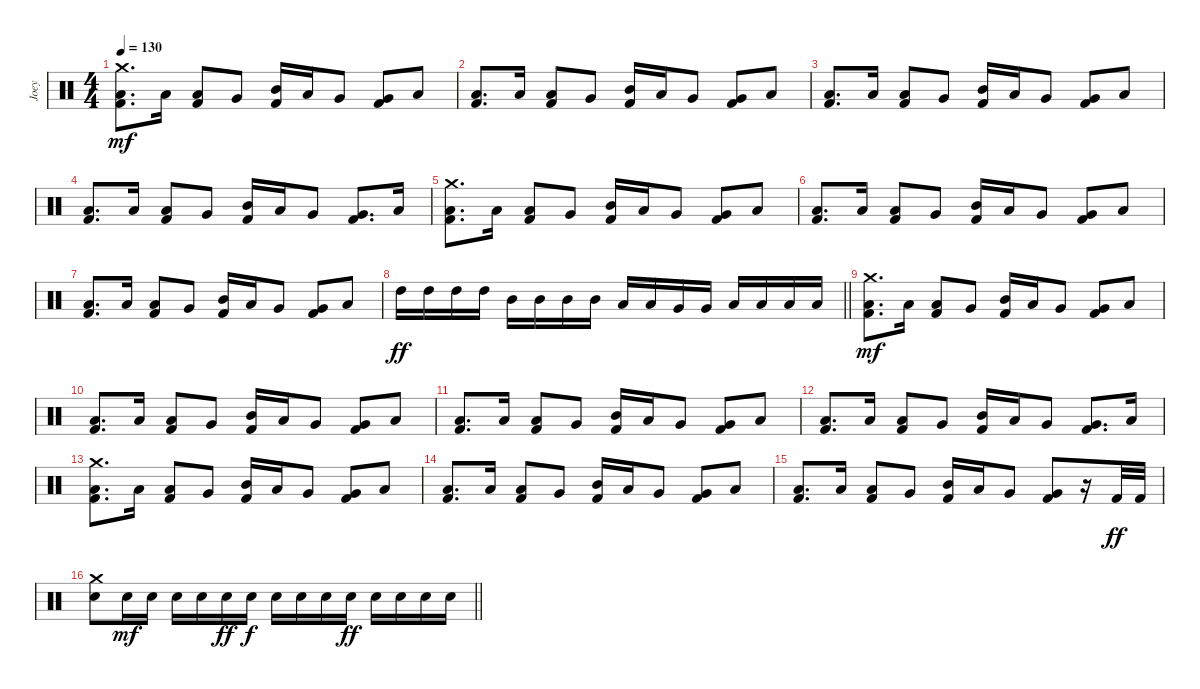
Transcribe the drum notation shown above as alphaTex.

\track ("Joey" "Joey") {instrument percussion}
\staff {score}
\articulation defaults
\ts (4 4)
\section ("" "")
\tempo 130
\clef neutral
\ks c
("Crash medium (hit)" "Low Tom (hit)" "Kick (hit) 2").8{d dy mf} "Low Tom (hit)".16 ("Low Tom (hit)" "Kick (hit) 2").8 "Very Low Tom (hit)".8 ("Mid Tom (hit)" "Kick (hit) 2").16 "Low Tom (hit)".16 "Very Low Tom (hit)".8 ("Very Low Tom (hit)" "Kick (hit) 2").8 "Low Floor Tom (hit)".8 |
("Low Tom (hit)" "Kick (hit) 2").8{d} "Low Tom (hit)".16 ("Low Tom (hit)" "Kick (hit) 2").8 "Very Low Tom (hit)".8 ("Mid Tom (hit)" "Kick (hit) 2").16 "Low Tom (hit)".16 "Very Low Tom (hit)".8 ("Very Low Tom (hit)" "Kick (hit) 2").8 "Low Floor Tom (hit)".8 |
("Low Tom (hit)" "Kick (hit) 2").8{d} "Low Tom (hit)".16 ("Low Tom (hit)" "Kick (hit) 2").8 "Very Low Tom (hit)".8 ("Mid Tom (hit)" "Kick (hit) 2").16 "Low Tom (hit)".16 "Very Low Tom (hit)".8 ("Very Low Tom (hit)" "Kick (hit) 2").8 "Low Floor Tom (hit)".8 |
("Low Tom (hit)" "Kick (hit) 2").8{d} "Low Tom (hit)".16 ("Low Tom (hit)" "Kick (hit) 2").8 "Very Low Tom (hit)".8 ("Mid Tom (hit)" "Kick (hit) 2").16 "Low Tom (hit)".16 "Very Low Tom (hit)".8 ("Very Low Tom (hit)" "Kick (hit) 2").8{d} "Low Tom (hit)".16 |
("Crash medium (hit)" "Low Tom (hit)" "Kick (hit) 2").8{d} "Low Tom (hit)".16 ("Low Tom (hit)" "Kick (hit) 2").8 "Very Low Tom (hit)".8 ("Mid Tom (hit)" "Kick (hit) 2").16 "Low Tom (hit)".16 "Very Low Tom (hit)".8 ("Very Low Tom (hit)" "Kick (hit) 2").8 "Low Floor Tom (hit)".8 |
("Low Tom (hit)" "Kick (hit) 2").8{d} "Low Tom (hit)".16 ("Low Tom (hit)" "Kick (hit) 2").8 "Very Low Tom (hit)".8 ("Mid Tom (hit)" "Kick (hit) 2").16 "Low Tom (hit)".16 "Very Low Tom (hit)".8 ("Very Low Tom (hit)" "Kick (hit) 2").8 "Low Floor Tom (hit)".8 |
("Low Tom (hit)" "Kick (hit) 2").8{d} "Low Tom (hit)".16 ("Low Tom (hit)" "Kick (hit) 2").8 "Very Low Tom (hit)".8 ("Mid Tom (hit)" "Kick (hit) 2").16 "Low Tom (hit)".16 "Very Low Tom (hit)".8 ("Very Low Tom (hit)" "Kick (hit) 2").8 "Low Floor Tom (hit)".8 |
\barLineRight lightlight "High Tom (hit)".16{dy ff} "High Tom (hit)".16 "High Tom (hit)".16 "High Tom (hit)".16 "Mid Tom (hit)".16 "Mid Tom (hit)".16 "Mid Tom (hit)".16 "Mid Tom (hit)".16 "Low Tom (hit)".16 "Low Tom (hit)".16 "Very Low Tom (hit)".16 "Very Low Tom (hit)".16 "Low Floor Tom (hit)".16 "Low Floor Tom (hit)".16 "Low Floor Tom (hit)".16 "Low Floor Tom (hit)".16
|
\section ("" "")
("Crash medium (hit)" "Low Tom (hit)" "Kick (hit) 2").8{d dy mf} "Low Tom (hit)".16 ("Low Tom (hit)" "Kick (hit) 2").8 "Very Low Tom (hit)".8 ("Mid Tom (hit)" "Kick (hit) 2").16 "Low Tom (hit)".16 "Very Low Tom (hit)".8 ("Very Low Tom (hit)" "Kick (hit) 2").8 "Low Floor Tom (hit)".8 |
("Low Tom (hit)" "Kick (hit) 2").8{d} "Low Tom (hit)".16 ("Low Tom (hit)" "Kick (hit) 2").8 "Very Low Tom (hit)".8 ("Mid Tom (hit)" "Kick (hit) 2").16 "Low Tom (hit)".16 "Very Low Tom (hit)".8 ("Very Low Tom (hit)" "Kick (hit) 2").8 "Low Floor Tom (hit)".8 |
("Low Tom (hit)" "Kick (hit) 2").8{d} "Low Tom (hit)".16 ("Low Tom (hit)" "Kick (hit) 2").8 "Very Low Tom (hit)".8 ("Mid Tom (hit)" "Kick (hit) 2").16 "Low Tom (hit)".16 "Very Low Tom (hit)".8 ("Very Low Tom (hit)" "Kick (hit) 2").8 "Low Floor Tom (hit)".8 |
("Low Tom (hit)" "Kick (hit) 2").8{d} "Low Tom (hit)".16 ("Low Tom (hit)" "Kick (hit) 2").8 "Very Low Tom (hit)".8 ("Mid Tom (hit)" "Kick (hit) 2").16 "Low Tom (hit)".16 "Very Low Tom (hit)".8 ("Very Low Tom (hit)" "Kick (hit) 2").8{d} "Low Tom (hit)".16 |
("Crash medium (hit)" "Low Tom (hit)" "Kick (hit) 2").8{d} "Low Tom (hit)".16 ("Low Tom (hit)" "Kick (hit) 2").8 "Very Low Tom (hit)".8 ("Mid Tom (hit)" "Kick (hit) 2").16 "Low Tom (hit)".16 "Very Low Tom (hit)".8 ("Very Low Tom (hit)" "Kick (hit) 2").8 "Low Floor Tom (hit)".8 |
("Low Tom (hit)" "Kick (hit) 2").8{d} "Low Tom (hit)".16 ("Low Tom (hit)" "Kick (hit) 2").8 "Very Low Tom (hit)".8 ("Mid Tom (hit)" "Kick (hit) 2").16 "Low Tom (hit)".16 "Very Low Tom (hit)".8 ("Very Low Tom (hit)" "Kick (hit) 2").8 "Low Floor Tom (hit)".8 |
("Low Tom (hit)" "Kick (hit) 2").8{d} "Low Tom (hit)".16 ("Low Tom (hit)" "Kick (hit) 2").8 "Very Low Tom (hit)".8 ("Mid Tom (hit)" "Kick (hit) 2").16 "Low Tom (hit)".16 "Very Low Tom (hit)".8 ("Very Low Tom (hit)" "Kick (hit) 2").8 r.16 "Kick (hit) 2".32{dy ff} "Kick (hit) 2".32 |
\barLineRight lightlight
("Crash medium (hit)" "Electric Snare (hit)").8 "Electric Snare (hit)".16{dy mf} "Electric Snare (hit)".16 "Electric Snare (hit)".16 "Electric Snare (hit)".16 "Electric Snare (hit)".16{dy ff} "Electric Snare (hit)".16{dy f} "Electric Snare (hit)".16 "Electric Snare (hit)".16 "Electric Snare (hit)".16 "Electric Snare (hit)".16{dy ff} "Electric Snare (hit)".16 "Electric Snare (hit)".16 "Electric Snare (hit)".16 "Electric Snare (hit)".16
